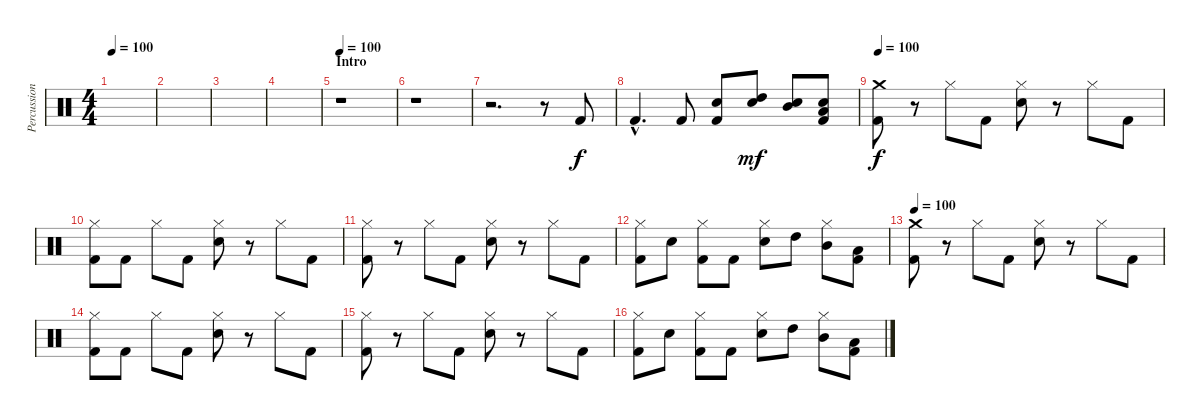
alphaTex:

\track ("Percussion" "Percussion") {instrument percussion}
\staff {score}
\articulation defaults
\ts (4 4)
\tempo 100
\clef neutral
\ks c
|
|
|
|
\section ("" "Intro")
\tempo 100
r.1 |
r.1 |
r.2{d} r.8 "Kick (hit) 2".8 |
"Kick (hit) 2"{hac}.4{d} "Kick (hit) 2".8 ("Snare (hit) 2" "Kick (hit) 2").8 ("High Tom (hit)" "Snare (hit) 2").8{dy mf} ("Mid Tom (hit)" "Snare (hit) 2").8 ("Low Tom (hit)" "Snare (hit) 2" "Kick (hit) 2").8 |
\tempo 100
("Crash medium (hit)" "Kick (hit) 2").8{dy f} r.8 "Hi-Hat (closed)".8 "Kick (hit) 2".8 ("Hi-Hat (closed)" "Snare (hit) 2").8 r.8 "Hi-Hat (closed)".8 "Kick (hit) 2".8 |
("Hi-Hat (closed)" "Kick (hit) 2").8 "Kick (hit) 2".8 "Hi-Hat (closed)".8 "Kick (hit) 2".8 ("Hi-Hat (closed)" "Snare (hit) 2").8 r.8 "Hi-Hat (closed)".8 "Kick (hit) 2".8 |
("Hi-Hat (closed)" "Kick (hit) 2").8 r.8 "Hi-Hat (closed)".8 "Kick (hit) 2".8 ("Hi-Hat (closed)" "Snare (hit) 2").8 r.8 "Hi-Hat (closed)".8 "Kick (hit) 2".8 |
("Hi-Hat (closed)" "Kick (hit) 2").8 "Snare (hit) 2".8 ("Hi-Hat (closed)" "Kick (hit) 2").8 "Kick (hit) 2".8 ("Hi-Hat (closed)" "Snare (hit) 2").8 "High Tom (hit)".8 ("Hi-Hat (closed)" "Mid Tom (hit)").8 ("Low Tom (hit)" "Kick (hit) 2").8 |
\tempo 100
("Crash medium (hit)" "Kick (hit) 2").8 r.8 "Hi-Hat (closed)".8 "Kick (hit) 2".8 ("Hi-Hat (closed)" "Snare (hit) 2").8 r.8 "Hi-Hat (closed)".8 "Kick (hit) 2".8 |
("Hi-Hat (closed)" "Kick (hit) 2").8 "Kick (hit) 2".8 "Hi-Hat (closed)".8 "Kick (hit) 2".8 ("Hi-Hat (closed)" "Snare (hit) 2").8 r.8 "Hi-Hat (closed)".8 "Kick (hit) 2".8 |
("Hi-Hat (closed)" "Kick (hit) 2").8 r.8 "Hi-Hat (closed)".8 "Kick (hit) 2".8 ("Hi-Hat (closed)" "Snare (hit) 2").8 r.8 "Hi-Hat (closed)".8 "Kick (hit) 2".8 |
("Hi-Hat (closed)" "Kick (hit) 2").8 "Snare (hit) 2".8 ("Hi-Hat (closed)" "Kick (hit) 2").8 "Kick (hit) 2".8 ("Hi-Hat (closed)" "Snare (hit) 2").8 "High Tom (hit)".8 ("Hi-Hat (closed)" "Mid Tom (hit)").8 ("Low Tom (hit)" "Kick (hit) 2").8
